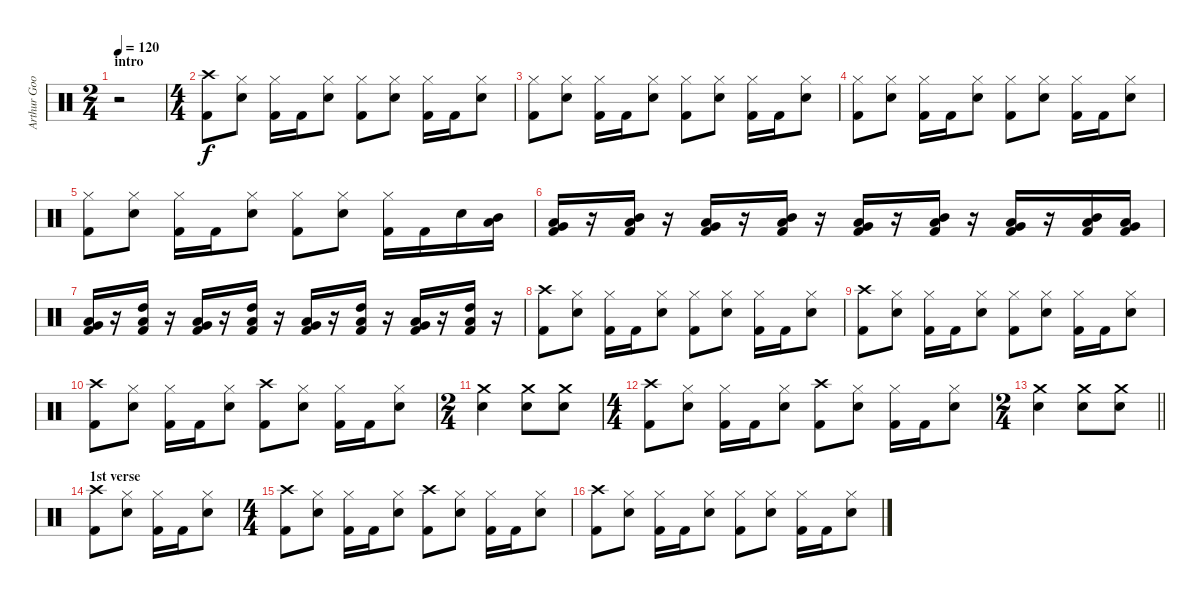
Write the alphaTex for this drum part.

\track ("Arthur Googy" "Arthur Goo") {instrument percussion}
\staff {score}
\articulation defaults
\ts (2 4)
\section ("" "intro")
\tempo 120
\clef neutral
\ks c
r.2{dy f} |
\ts (4 4)
("Crash high (hit)" "Kick (hit) 2").8 ("Hi-Hat (closed)" "Snare (hit) 2").8 ("Hi-Hat (closed)" "Kick (hit) 2").16 "Kick (hit) 2".16 ("Hi-Hat (closed)" "Snare (hit) 2").8 ("Hi-Hat (closed)" "Kick (hit) 2").8 ("Hi-Hat (closed)" "Snare (hit) 2").8 ("Hi-Hat (closed)" "Kick (hit) 2").16 "Kick (hit) 2".16 ("Hi-Hat (closed)" "Snare (hit) 2").8 |
("Hi-Hat (closed)" "Kick (hit) 2").8 ("Hi-Hat (closed)" "Snare (hit) 2").8 ("Hi-Hat (closed)" "Kick (hit) 2").16 "Kick (hit) 2".16 ("Hi-Hat (closed)" "Snare (hit) 2").8 ("Hi-Hat (closed)" "Kick (hit) 2").8 ("Hi-Hat (closed)" "Snare (hit) 2").8 ("Hi-Hat (closed)" "Kick (hit) 2").16 "Kick (hit) 2".16 ("Hi-Hat (closed)" "Snare (hit) 2").8 |
("Hi-Hat (closed)" "Kick (hit) 2").8 ("Hi-Hat (closed)" "Snare (hit) 2").8 ("Hi-Hat (closed)" "Kick (hit) 2").16 "Kick (hit) 2".16 ("Hi-Hat (closed)" "Snare (hit) 2").8 ("Hi-Hat (closed)" "Kick (hit) 2").8 ("Hi-Hat (closed)" "Snare (hit) 2").8 ("Hi-Hat (closed)" "Kick (hit) 2").16 "Kick (hit) 2".16 ("Hi-Hat (closed)" "Snare (hit) 2").8 |
("Hi-Hat (closed)" "Kick (hit) 2").8 ("Hi-Hat (closed)" "Snare (hit) 2").8 ("Hi-Hat (closed)" "Kick (hit) 2").16 "Kick (hit) 2".16 ("Hi-Hat (closed)" "Snare (hit) 2").8 ("Hi-Hat (closed)" "Kick (hit) 2").8 ("Hi-Hat (closed)" "Snare (hit) 2").8 ("Hi-Hat (closed)" "Kick (hit) 2").16 "Kick (hit) 2".16 "Snare (hit) 2".16 ("Mid Tom (hit)" "Low Tom (hit)").16 |
("Low Tom (hit)" "Very Low Tom (hit)" "Kick (hit) 2").16 r.16 ("Mid Tom (hit)" "Low Tom (hit)" "Kick (hit) 2").16 r.16 ("Low Tom (hit)" "Very Low Tom (hit)" "Kick (hit) 2").16 r.16 ("Mid Tom (hit)" "Low Tom (hit)" "Kick (hit) 2").16 r.16 ("Low Tom (hit)" "Very Low Tom (hit)" "Kick (hit) 2").16 r.16 ("Mid Tom (hit)" "Low Tom (hit)" "Kick (hit) 2").16 r.16 ("Low Tom (hit)" "Very Low Tom (hit)" "Kick (hit) 2").16 r.16 ("Mid Tom (hit)" "Low Tom (hit)" "Kick (hit) 2").16 ("Low Tom (hit)" "Very Low Tom (hit)" "Kick (hit) 2").16 |
("Low Tom (hit)" "Very Low Tom (hit)" "Kick (hit) 2").16 r.16 ("High Tom (hit)" "Low Tom (hit)" "Kick (hit) 2").16 r.16 ("Low Tom (hit)" "Very Low Tom (hit)" "Kick (hit) 2").16 r.16 ("High Tom (hit)" "Low Tom (hit)" "Kick (hit) 2").16 r.16 ("Low Tom (hit)" "Very Low Tom (hit)" "Kick (hit) 2").16 r.16 ("High Tom (hit)" "Low Tom (hit)" "Kick (hit) 2").16 r.16 ("Low Tom (hit)" "Very Low Tom (hit)" "Kick (hit) 2").16 r.16 ("High Tom (hit)" "Low Tom (hit)" "Kick (hit) 2").16 r.16 |
("Crash high (hit)" "Kick (hit) 2").8 ("Hi-Hat (closed)" "Snare (hit) 2").8 ("Hi-Hat (closed)" "Kick (hit) 2").16 "Kick (hit) 2".16 ("Hi-Hat (closed)" "Snare (hit) 2").8 ("Hi-Hat (closed)" "Kick (hit) 2").8 ("Hi-Hat (closed)" "Snare (hit) 2").8 ("Hi-Hat (closed)" "Kick (hit) 2").16 "Kick (hit) 2".16 ("Hi-Hat (closed)" "Snare (hit) 2").8 |
("Crash high (hit)" "Kick (hit) 2").8 ("Hi-Hat (closed)" "Snare (hit) 2").8 ("Hi-Hat (closed)" "Kick (hit) 2").16 "Kick (hit) 2".16 ("Hi-Hat (closed)" "Snare (hit) 2").8 ("Hi-Hat (closed)" "Kick (hit) 2").8 ("Hi-Hat (closed)" "Snare (hit) 2").8 ("Hi-Hat (closed)" "Kick (hit) 2").16 "Kick (hit) 2".16 ("Hi-Hat (closed)" "Snare (hit) 2").8 |
("Crash high (hit)" "Kick (hit) 2").8 ("Hi-Hat (closed)" "Snare (hit) 2").8 ("Hi-Hat (closed)" "Kick (hit) 2").16 "Kick (hit) 2".16 ("Hi-Hat (closed)" "Snare (hit) 2").8 ("Crash high (hit)" "Kick (hit) 2").8 ("Hi-Hat (closed)" "Snare (hit) 2").8 ("Hi-Hat (closed)" "Kick (hit) 2").16 "Kick (hit) 2".16 ("Hi-Hat (closed)" "Snare (hit) 2").8 |
\ts (2 4)
("Crash medium (hit)" "Snare (hit) 2").4 ("Crash medium (hit)" "Snare (hit) 2").8 ("Crash medium (hit)" "Snare (hit) 2").8 |
\ts (4 4)
("Crash high (hit)" "Kick (hit) 2").8 ("Hi-Hat (closed)" "Snare (hit) 2").8 ("Hi-Hat (closed)" "Kick (hit) 2").16 "Kick (hit) 2".16 ("Hi-Hat (closed)" "Snare (hit) 2").8 ("Crash high (hit)" "Kick (hit) 2").8 ("Hi-Hat (closed)" "Snare (hit) 2").8 ("Hi-Hat (closed)" "Kick (hit) 2").16 "Kick (hit) 2".16 ("Hi-Hat (closed)" "Snare (hit) 2").8 |
\ts (2 4)
\barLineRight lightlight
("Crash medium (hit)" "Snare (hit) 2").4 ("Crash medium (hit)" "Snare (hit) 2").8 ("Crash medium (hit)" "Snare (hit) 2").8 |
\section ("" "1st verse")
("Crash high (hit)" "Kick (hit) 2").8 ("Hi-Hat (closed)" "Snare (hit) 2").8 ("Hi-Hat (closed)" "Kick (hit) 2").16 "Kick (hit) 2".16 ("Hi-Hat (closed)" "Snare (hit) 2").8 |
\ts (4 4)
("Crash high (hit)" "Kick (hit) 2").8 ("Hi-Hat (closed)" "Snare (hit) 2").8 ("Hi-Hat (closed)" "Kick (hit) 2").16 "Kick (hit) 2".16 ("Hi-Hat (closed)" "Snare (hit) 2").8 ("Crash high (hit)" "Kick (hit) 2").8 ("Hi-Hat (closed)" "Snare (hit) 2").8 ("Hi-Hat (closed)" "Kick (hit) 2").16 "Kick (hit) 2".16 ("Hi-Hat (closed)" "Snare (hit) 2").8 |
("Crash high (hit)" "Kick (hit) 2").8 ("Hi-Hat (closed)" "Snare (hit) 2").8 ("Hi-Hat (closed)" "Kick (hit) 2").16 "Kick (hit) 2".16 ("Hi-Hat (closed)" "Snare (hit) 2").8 ("Hi-Hat (closed)" "Kick (hit) 2").8 ("Hi-Hat (closed)" "Snare (hit) 2").8 ("Hi-Hat (closed)" "Kick (hit) 2").16 "Kick (hit) 2".16 ("Hi-Hat (closed)" "Snare (hit) 2").8
